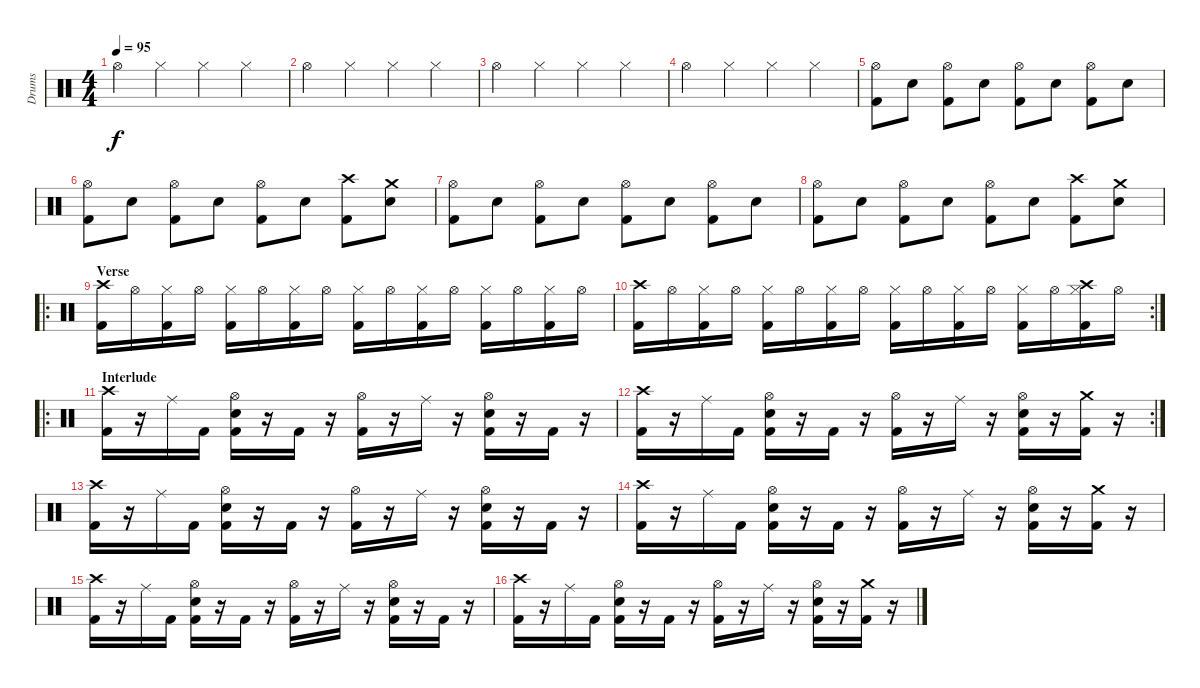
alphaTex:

\track ("Drums" "Drums") {instrument percussion}
\staff {score}
\articulation defaults
\ts (4 4)
\tempo 95
\clef neutral
\ks c "Hi-Hat (open)".4{dy f} "Hi-Hat (closed)".4 "Hi-Hat (closed)".4 "Hi-Hat (closed)".4
|
"Hi-Hat (open)".4 "Hi-Hat (closed)".4 "Hi-Hat (closed)".4 "Hi-Hat (closed)".4 |
"Hi-Hat (open)".4 "Hi-Hat (closed)".4 "Hi-Hat (closed)".4 "Hi-Hat (closed)".4 |
"Hi-Hat (open)".4 "Hi-Hat (closed)".4 "Hi-Hat (closed)".4 "Hi-Hat (closed)".4 |
("Hi-Hat (open)" "Kick (hit) 2").8 "Snare (hit) 2".8 ("Hi-Hat (open)" "Kick (hit) 2").8 "Snare (hit) 2".8 ("Hi-Hat (open)" "Kick (hit) 2").8 "Snare (hit) 2".8 ("Hi-Hat (open)" "Kick (hit) 2").8 "Snare (hit) 2".8 |
("Hi-Hat (open)" "Kick (hit) 2").8 "Snare (hit) 2".8 ("Hi-Hat (open)" "Kick (hit) 2").8 "Snare (hit) 2".8 ("Hi-Hat (open)" "Kick (hit) 2").8 "Snare (hit) 2".8 ("Crash high (hit)" "Kick (hit) 2").8 ("Crash medium (hit)" "Snare (hit) 2").8 |
("Hi-Hat (open)" "Kick (hit) 2").8 "Snare (hit) 2".8 ("Hi-Hat (open)" "Kick (hit) 2").8 "Snare (hit) 2".8 ("Hi-Hat (open)" "Kick (hit) 2").8 "Snare (hit) 2".8 ("Hi-Hat (open)" "Kick (hit) 2").8 "Snare (hit) 2".8 |
("Hi-Hat (open)" "Kick (hit) 2").8 "Snare (hit) 2".8 ("Hi-Hat (open)" "Kick (hit) 2").8 "Snare (hit) 2".8 ("Hi-Hat (open)" "Kick (hit) 2").8 "Snare (hit) 2".8 ("Crash high (hit)" "Kick (hit) 2").8 ("Crash medium (hit)" "Snare (hit) 2").8 |
\ro
\section ("" "Verse")
("Crash high (hit)" "Kick (hit) 2").16 "Hi-Hat (open)".16 ("Hi-Hat (closed)" "Kick (hit) 2").16 "Hi-Hat (open)".16 ("Hi-Hat (closed)" "Kick (hit) 2").16 "Hi-Hat (open)".16 ("Hi-Hat (closed)" "Kick (hit) 2").16 "Hi-Hat (open)".16 ("Hi-Hat (closed)" "Kick (hit) 2").16 "Hi-Hat (open)".16 ("Hi-Hat (closed)" "Kick (hit) 2").16 "Hi-Hat (open)".16 ("Hi-Hat (closed)" "Kick (hit) 2").16 "Hi-Hat (open)".16 ("Hi-Hat (closed)" "Kick (hit) 2").16 "Hi-Hat (open)".16 |
\rc 2
("Crash high (hit)" "Kick (hit) 2").16 "Hi-Hat (open)".16 ("Hi-Hat (closed)" "Kick (hit) 2").16 "Hi-Hat (open)".16 ("Hi-Hat (closed)" "Kick (hit) 2").16 "Hi-Hat (open)".16 ("Hi-Hat (closed)" "Kick (hit) 2").16 "Hi-Hat (open)".16 ("Hi-Hat (closed)" "Kick (hit) 2").16 "Hi-Hat (open)".16 ("Hi-Hat (closed)" "Kick (hit) 2").16 "Hi-Hat (open)".16 ("Hi-Hat (closed)" "Kick (hit) 2").16 "Hi-Hat (open)".16 ("Crash high (hit)" "Hi-Hat (closed)" "Kick (hit) 2").16 "Hi-Hat (open)".16 |
\ro
\section ("" "Interlude")
("Crash high (hit)" "Kick (hit) 2").16 r.16 "Ride (middle)".16 "Kick (hit) 2".16 ("Hi-Hat (open)" "Electric Snare (hit)" "Kick (hit) 2").16 r.16 "Kick (hit) 2".16 r.16 ("Hi-Hat (open)" "Kick (hit) 2").16 r.16 "Ride (middle)".16 r.16 ("Hi-Hat (open)" "Electric Snare (hit)" "Kick (hit) 2").16 r.16 "Kick (hit) 2".16 r.16 |
\rc 2
("Crash high (hit)" "Kick (hit) 2").16 r.16 "Ride (middle)".16 "Kick (hit) 2".16 ("Hi-Hat (open)" "Electric Snare (hit)" "Kick (hit) 2").16 r.16 "Kick (hit) 2".16 r.16 ("Hi-Hat (open)" "Kick (hit) 2").16 r.16 "Ride (middle)".16 r.16 ("Hi-Hat (open)" "Electric Snare (hit)" "Kick (hit) 2").16 r.16 ("Crash medium (hit)" "Kick (hit) 2").16 r.16 |
("Crash high (hit)" "Kick (hit) 2").16 r.16 "Ride (middle)".16 "Kick (hit) 2".16 ("Hi-Hat (open)" "Electric Snare (hit)" "Kick (hit) 2").16 r.16 "Kick (hit) 2".16 r.16 ("Hi-Hat (open)" "Kick (hit) 2").16 r.16 "Ride (middle)".16 r.16 ("Hi-Hat (open)" "Electric Snare (hit)" "Kick (hit) 2").16 r.16 "Kick (hit) 2".16 r.16 |
("Crash high (hit)" "Kick (hit) 2").16 r.16 "Ride (middle)".16 "Kick (hit) 2".16 ("Hi-Hat (open)" "Electric Snare (hit)" "Kick (hit) 2").16 r.16 "Kick (hit) 2".16 r.16 ("Hi-Hat (open)" "Kick (hit) 2").16 r.16 "Ride (middle)".16 r.16 ("Hi-Hat (open)" "Electric Snare (hit)" "Kick (hit) 2").16 r.16 ("Crash medium (hit)" "Kick (hit) 2").16 r.16 |
("Crash high (hit)" "Kick (hit) 2").16 r.16 "Ride (middle)".16 "Kick (hit) 2".16 ("Hi-Hat (open)" "Electric Snare (hit)" "Kick (hit) 2").16 r.16 "Kick (hit) 2".16 r.16 ("Hi-Hat (open)" "Kick (hit) 2").16 r.16 "Ride (middle)".16 r.16 ("Hi-Hat (open)" "Electric Snare (hit)" "Kick (hit) 2").16 r.16 "Kick (hit) 2".16 r.16 |
("Crash high (hit)" "Kick (hit) 2").16 r.16 "Ride (middle)".16 "Kick (hit) 2".16 ("Hi-Hat (open)" "Electric Snare (hit)" "Kick (hit) 2").16 r.16 "Kick (hit) 2".16 r.16 ("Hi-Hat (open)" "Kick (hit) 2").16 r.16 "Ride (middle)".16 r.16 ("Hi-Hat (open)" "Electric Snare (hit)" "Kick (hit) 2").16 r.16 ("Crash medium (hit)" "Kick (hit) 2").16 r.16
